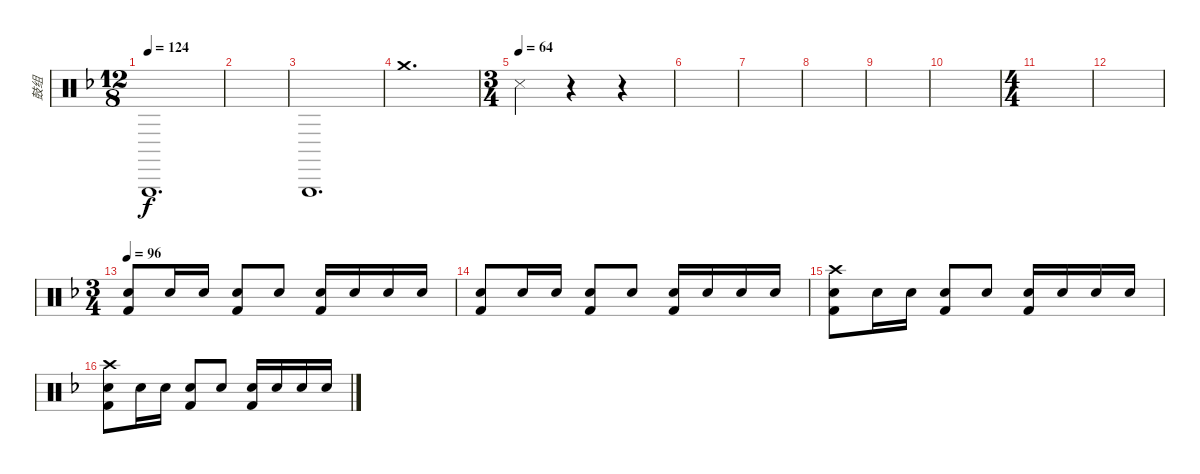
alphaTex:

\track ("鼓组" "鼓组") {instrument percussion}
\staff {score}
\articulation defaults
\ts (12 8)
\tempo 124
\clef neutral
\ks f "Triangle (hit)".1{d dy f volume 16}
|
|
"Triangle (hit)".1{d volume 16} |
"Crash medium (hit)".1{d} |
\ts (3 4)
\tempo (64)
"Snare (side stick) 3".4{volume 16} r.4 r.4 |
|
|
|
|
|
\ts (4 4)
|
|
\ts (3 4)
\tempo 96
("Snare (hit) 2" "Kick (hit) 2").8{volume 12} "Snare (hit) 2".16 "Snare (hit) 2".16 ("Snare (hit) 2" "Kick (hit) 2").8 "Snare (hit) 2".8 ("Snare (hit) 2" "Kick (hit) 2").16 "Snare (hit) 2".16 "Snare (hit) 2".16 "Snare (hit) 2".16 |
("Snare (hit) 2" "Kick (hit) 2").8 "Snare (hit) 2".16 "Snare (hit) 2".16 ("Snare (hit) 2" "Kick (hit) 2").8 "Snare (hit) 2".8 ("Snare (hit) 2" "Kick (hit) 2").16 "Snare (hit) 2".16 "Snare (hit) 2".16 "Snare (hit) 2".16 |
("Snare (hit) 2" "Crash high (hit)" "Kick (hit) 2").8 "Snare (hit) 2".16 "Snare (hit) 2".16 ("Snare (hit) 2" "Kick (hit) 2").8 "Snare (hit) 2".8 ("Snare (hit) 2" "Kick (hit) 2").16 "Snare (hit) 2".16 "Snare (hit) 2".16 "Snare (hit) 2".16 |
("Snare (hit) 2" "Crash high (hit)" "Kick (hit) 2").8 "Snare (hit) 2".16 "Snare (hit) 2".16 ("Snare (hit) 2" "Kick (hit) 2").8 "Snare (hit) 2".8 ("Snare (hit) 2" "Kick (hit) 2").16 "Snare (hit) 2".16 "Snare (hit) 2".16 "Snare (hit) 2".16
